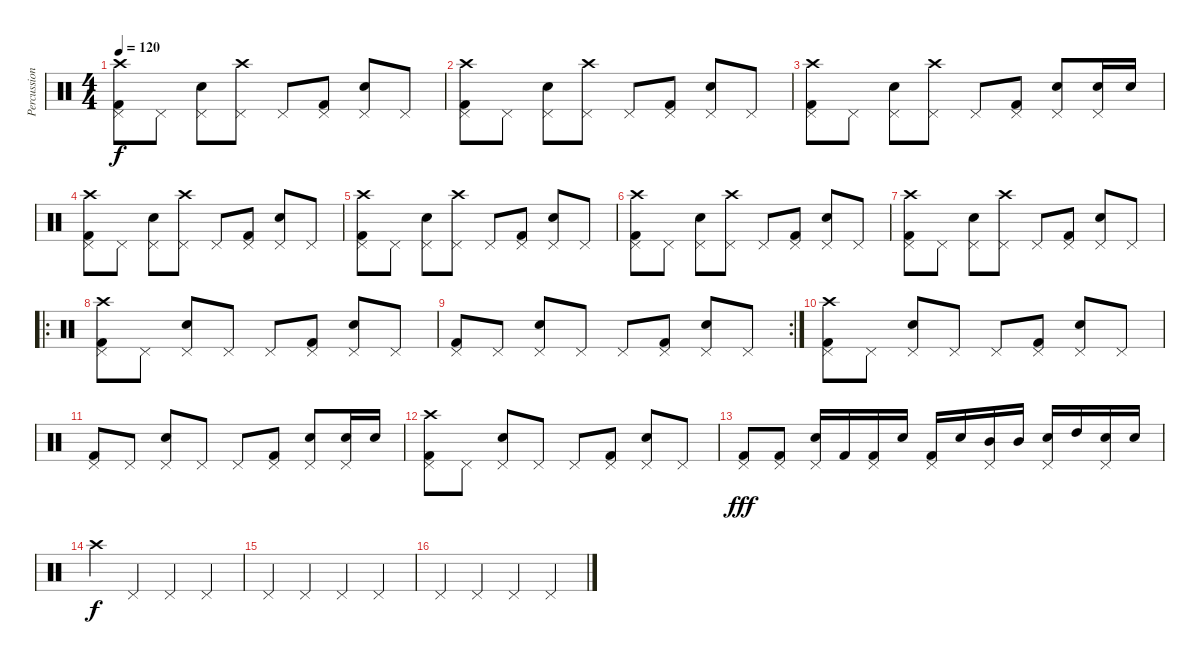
\track ("Percussion" "Percussion") {instrument percussion}
\staff {score}
\articulation defaults
\ts (4 4)
\tempo 120
\clef neutral
\ks c
("Crash high (hit)" "Pedal Hi-Hat (hit)" "Kick (hit) 2").8{dy f} "Pedal Hi-Hat (hit)".8 ("Pedal Hi-Hat (hit)" "Electric Snare (hit)").8 ("Crash high (hit)" "Pedal Hi-Hat (hit)").8 "Pedal Hi-Hat (hit)".8 ("Pedal Hi-Hat (hit)" "Kick (hit) 2").8 ("Pedal Hi-Hat (hit)" "Electric Snare (hit)").8 "Pedal Hi-Hat (hit)".8 |
("Crash high (hit)" "Pedal Hi-Hat (hit)" "Kick (hit) 2").8 "Pedal Hi-Hat (hit)".8 ("Pedal Hi-Hat (hit)" "Electric Snare (hit)").8 ("Crash high (hit)" "Pedal Hi-Hat (hit)").8 "Pedal Hi-Hat (hit)".8 ("Pedal Hi-Hat (hit)" "Kick (hit) 2").8 ("Pedal Hi-Hat (hit)" "Electric Snare (hit)").8 "Pedal Hi-Hat (hit)".8 |
("Crash high (hit)" "Pedal Hi-Hat (hit)" "Kick (hit) 2").8 "Pedal Hi-Hat (hit)".8 ("Pedal Hi-Hat (hit)" "Electric Snare (hit)").8 ("Crash high (hit)" "Pedal Hi-Hat (hit)").8 "Pedal Hi-Hat (hit)".8 ("Pedal Hi-Hat (hit)" "Kick (hit) 2").8 ("Pedal Hi-Hat (hit)" "Electric Snare (hit)").8 ("Electric Snare (hit)" "Pedal Hi-Hat (hit)").16 "Electric Snare (hit)".16 |
("Crash high (hit)" "Pedal Hi-Hat (hit)" "Kick (hit) 2").8 "Pedal Hi-Hat (hit)".8 ("Pedal Hi-Hat (hit)" "Electric Snare (hit)").8 ("Crash high (hit)" "Pedal Hi-Hat (hit)").8 "Pedal Hi-Hat (hit)".8 ("Pedal Hi-Hat (hit)" "Kick (hit) 2").8 ("Pedal Hi-Hat (hit)" "Electric Snare (hit)").8 "Pedal Hi-Hat (hit)".8 |
("Crash high (hit)" "Pedal Hi-Hat (hit)" "Kick (hit) 2").8 "Pedal Hi-Hat (hit)".8 ("Pedal Hi-Hat (hit)" "Electric Snare (hit)").8 ("Crash high (hit)" "Pedal Hi-Hat (hit)").8 "Pedal Hi-Hat (hit)".8 ("Pedal Hi-Hat (hit)" "Kick (hit) 2").8 ("Pedal Hi-Hat (hit)" "Electric Snare (hit)").8 "Pedal Hi-Hat (hit)".8 |
("Crash high (hit)" "Pedal Hi-Hat (hit)" "Kick (hit) 2").8 "Pedal Hi-Hat (hit)".8 ("Pedal Hi-Hat (hit)" "Electric Snare (hit)").8 ("Crash high (hit)" "Pedal Hi-Hat (hit)").8 "Pedal Hi-Hat (hit)".8 ("Pedal Hi-Hat (hit)" "Kick (hit) 2").8 ("Pedal Hi-Hat (hit)" "Electric Snare (hit)").8 "Pedal Hi-Hat (hit)".8 |
("Crash high (hit)" "Pedal Hi-Hat (hit)" "Kick (hit) 2").8 "Pedal Hi-Hat (hit)".8 ("Pedal Hi-Hat (hit)" "Electric Snare (hit)").8 ("Crash high (hit)" "Pedal Hi-Hat (hit)").8 "Pedal Hi-Hat (hit)".8 ("Pedal Hi-Hat (hit)" "Kick (hit) 2").8 ("Pedal Hi-Hat (hit)" "Electric Snare (hit)").8 "Pedal Hi-Hat (hit)".8 |
\ro
("Crash high (hit)" "Pedal Hi-Hat (hit)" "Kick (hit) 2").8 "Pedal Hi-Hat (hit)".8 ("Pedal Hi-Hat (hit)" "Electric Snare (hit)").8 "Pedal Hi-Hat (hit)".8 "Pedal Hi-Hat (hit)".8 ("Pedal Hi-Hat (hit)" "Kick (hit) 2").8 ("Pedal Hi-Hat (hit)" "Electric Snare (hit)").8 "Pedal Hi-Hat (hit)".8 |
\rc 2
("Pedal Hi-Hat (hit)" "Kick (hit) 2").8 "Pedal Hi-Hat (hit)".8 ("Pedal Hi-Hat (hit)" "Electric Snare (hit)").8 "Pedal Hi-Hat (hit)".8 "Pedal Hi-Hat (hit)".8 ("Pedal Hi-Hat (hit)" "Kick (hit) 2").8 ("Pedal Hi-Hat (hit)" "Electric Snare (hit)").8 "Pedal Hi-Hat (hit)".8 |
("Crash high (hit)" "Pedal Hi-Hat (hit)" "Kick (hit) 2").8 "Pedal Hi-Hat (hit)".8 ("Pedal Hi-Hat (hit)" "Electric Snare (hit)").8 "Pedal Hi-Hat (hit)".8 "Pedal Hi-Hat (hit)".8 ("Pedal Hi-Hat (hit)" "Kick (hit) 2").8 ("Pedal Hi-Hat (hit)" "Electric Snare (hit)").8 "Pedal Hi-Hat (hit)".8 |
("Pedal Hi-Hat (hit)" "Kick (hit) 2").8 "Pedal Hi-Hat (hit)".8 ("Pedal Hi-Hat (hit)" "Electric Snare (hit)").8 "Pedal Hi-Hat (hit)".8 "Pedal Hi-Hat (hit)".8 ("Pedal Hi-Hat (hit)" "Kick (hit) 2").8 ("Pedal Hi-Hat (hit)" "Electric Snare (hit)").8 ("Electric Snare (hit)" "Pedal Hi-Hat (hit)").16 "Electric Snare (hit)".16 |
("Crash high (hit)" "Pedal Hi-Hat (hit)" "Kick (hit) 2").8 "Pedal Hi-Hat (hit)".8 ("Pedal Hi-Hat (hit)" "Electric Snare (hit)").8 "Pedal Hi-Hat (hit)".8 "Pedal Hi-Hat (hit)".8 ("Pedal Hi-Hat (hit)" "Kick (hit) 2").8 ("Pedal Hi-Hat (hit)" "Electric Snare (hit)").8 "Pedal Hi-Hat (hit)".8 |
("Pedal Hi-Hat (hit)" "Kick (hit) 2").8{dy fff} ("Pedal Hi-Hat (hit)" "Kick (hit) 2").8 ("Pedal Hi-Hat (hit)" "Electric Snare (hit)").16 "Kick (hit) 2".16 ("Pedal Hi-Hat (hit)" "Kick (hit) 2").16 "Electric Snare (hit)".16 ("Pedal Hi-Hat (hit)" "Kick (hit) 2").16 "Electric Snare (hit)".16 ("Pedal Hi-Hat (hit)" "Mid Tom (hit)").16 "Mid Tom (hit)".16 ("Pedal Hi-Hat (hit)" "Electric Snare (hit)").16 "High Tom (hit)".16 ("Pedal Hi-Hat (hit)" "Electric Snare (hit)").16 "Electric Snare (hit)".16 |
"Crash high (hit)".4{dy f} "Pedal Hi-Hat (hit)".4 "Pedal Hi-Hat (hit)".4 "Pedal Hi-Hat (hit)".4 |
"Pedal Hi-Hat (hit)".4 "Pedal Hi-Hat (hit)".4 "Pedal Hi-Hat (hit)".4 "Pedal Hi-Hat (hit)".4 |
"Pedal Hi-Hat (hit)".4 "Pedal Hi-Hat (hit)".4 "Pedal Hi-Hat (hit)".4 "Pedal Hi-Hat (hit)".4
